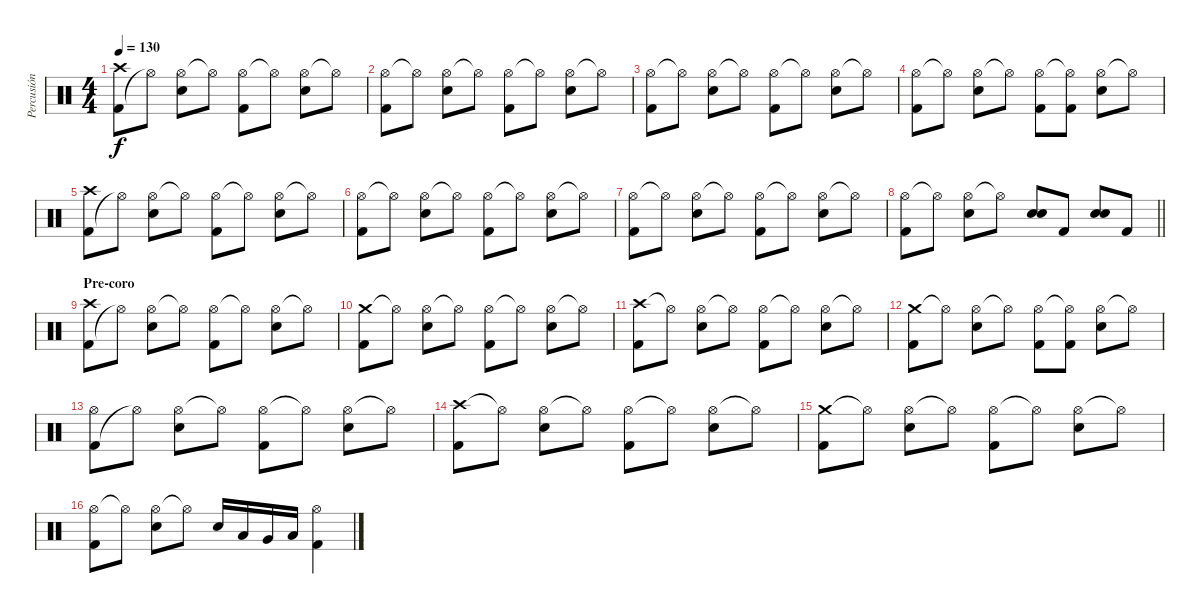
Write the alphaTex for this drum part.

\track ("Percusión" "Percusión") {instrument percussion}
\staff {score}
\articulation defaults
\ts (4 4)
\tempo 130
\clef neutral
\ks c
("Kick (hit) 2" "Crash high (hit)").8{dy f} "Hi-Hat (open)"{t}.8 ("Hi-Hat (open)" "Snare (hit) 2").8 "Hi-Hat (open)"{t}.8 ("Hi-Hat (open)" "Kick (hit) 2").8 "Hi-Hat (open)"{t}.8 ("Hi-Hat (open)" "Snare (hit) 2").8 "Hi-Hat (open)"{t}.8 |
("Hi-Hat (open)" "Kick (hit) 2").8 "Hi-Hat (open)"{t}.8 ("Hi-Hat (open)" "Snare (hit) 2").8 "Hi-Hat (open)"{t}.8 ("Hi-Hat (open)" "Kick (hit) 2").8 "Hi-Hat (open)"{t}.8 ("Hi-Hat (open)" "Snare (hit) 2").8 "Hi-Hat (open)"{t}.8 |
("Hi-Hat (open)" "Kick (hit) 2").8 "Hi-Hat (open)"{t}.8 ("Hi-Hat (open)" "Snare (hit) 2").8 "Hi-Hat (open)"{t}.8 ("Hi-Hat (open)" "Kick (hit) 2").8 "Hi-Hat (open)"{t}.8 ("Hi-Hat (open)" "Snare (hit) 2").8 "Hi-Hat (open)"{t}.8 |
("Hi-Hat (open)" "Kick (hit) 2").8 "Hi-Hat (open)"{t}.8 ("Hi-Hat (open)" "Snare (hit) 2").8 "Hi-Hat (open)"{t}.8 ("Hi-Hat (open)" "Kick (hit) 2").8 ("Hi-Hat (open)"{t} "Kick (hit) 2").8 ("Hi-Hat (open)" "Snare (hit) 2").8 "Hi-Hat (open)"{t}.8 |
("Kick (hit) 2" "Crash high (hit)").8 "Hi-Hat (open)"{t}.8 ("Hi-Hat (open)" "Snare (hit) 2").8 "Hi-Hat (open)"{t}.8 ("Hi-Hat (open)" "Kick (hit) 2").8 "Hi-Hat (open)"{t}.8 ("Hi-Hat (open)" "Snare (hit) 2").8 "Hi-Hat (open)"{t}.8 |
("Hi-Hat (open)" "Kick (hit) 2").8 "Hi-Hat (open)"{t}.8 ("Hi-Hat (open)" "Snare (hit) 2").8 "Hi-Hat (open)"{t}.8 ("Hi-Hat (open)" "Kick (hit) 2").8 "Hi-Hat (open)"{t}.8 ("Hi-Hat (open)" "Snare (hit) 2").8 "Hi-Hat (open)"{t}.8 |
("Hi-Hat (open)" "Kick (hit) 2").8 "Hi-Hat (open)"{t}.8 ("Hi-Hat (open)" "Snare (hit) 2").8 "Hi-Hat (open)"{t}.8 ("Hi-Hat (open)" "Kick (hit) 2").8 "Hi-Hat (open)"{t}.8 ("Hi-Hat (open)" "Snare (hit) 2").8 "Hi-Hat (open)"{t}.8 |
\barLineRight lightlight
("Hi-Hat (open)" "Kick (hit) 2").8 "Hi-Hat (open)"{t}.8 ("Hi-Hat (open)" "Snare (hit) 2").8 "Hi-Hat (open)"{t}.8 ("Snare (hit) 2" "Electric Snare (hit)").8 "Kick (hit) 2".8 ("Snare (hit) 2" "Electric Snare (hit)").8 "Kick (hit) 2".8 |
\section ("" "Pre-coro")
("Kick (hit) 2" "Crash high (hit)").8 "Hi-Hat (open)"{t}.8 ("Hi-Hat (open)" "Snare (hit) 2").8 "Hi-Hat (open)"{t}.8 ("Hi-Hat (open)" "Kick (hit) 2").8 "Hi-Hat (open)"{t}.8 ("Hi-Hat (open)" "Snare (hit) 2").8 "Hi-Hat (open)"{t}.8 |
("Crash medium (hit)" "Kick (hit) 2").8 "Hi-Hat (open)"{t}.8 ("Hi-Hat (open)" "Snare (hit) 2").8 "Hi-Hat (open)"{t}.8 ("Hi-Hat (open)" "Kick (hit) 2").8 "Hi-Hat (open)"{t}.8 ("Hi-Hat (open)" "Snare (hit) 2").8 "Hi-Hat (open)"{t}.8 |
("Crash high (hit)" "Kick (hit) 2").8 "Hi-Hat (open)"{t}.8 ("Hi-Hat (open)" "Snare (hit) 2").8 "Hi-Hat (open)"{t}.8 ("Hi-Hat (open)" "Kick (hit) 2").8 "Hi-Hat (open)"{t}.8 ("Hi-Hat (open)" "Snare (hit) 2").8 "Hi-Hat (open)"{t}.8 |
("Crash medium (hit)" "Kick (hit) 2").8 "Hi-Hat (open)"{t}.8 ("Hi-Hat (open)" "Snare (hit) 2").8 "Hi-Hat (open)"{t}.8 ("Hi-Hat (open)" "Kick (hit) 2").8 ("Hi-Hat (open)"{t} "Kick (hit) 2").8 ("Hi-Hat (open)" "Snare (hit) 2").8 "Hi-Hat (open)"{t}.8 |
("Kick (hit) 2" "Hi-Hat (open)").8 "Hi-Hat (open)"{t}.8 ("Hi-Hat (open)" "Snare (hit) 2").8 "Hi-Hat (open)"{t}.8 ("Hi-Hat (open)" "Kick (hit) 2").8 "Hi-Hat (open)"{t}.8 ("Hi-Hat (open)" "Snare (hit) 2").8 "Hi-Hat (open)"{t}.8 |
("Crash high (hit)" "Kick (hit) 2").8 "Hi-Hat (open)"{t}.8 ("Hi-Hat (open)" "Snare (hit) 2").8 "Hi-Hat (open)"{t}.8 ("Hi-Hat (open)" "Kick (hit) 2").8 "Hi-Hat (open)"{t}.8 ("Hi-Hat (open)" "Snare (hit) 2").8 "Hi-Hat (open)"{t}.8 |
("Crash medium (hit)" "Kick (hit) 2").8 "Hi-Hat (open)"{t}.8 ("Hi-Hat (open)" "Snare (hit) 2").8 "Hi-Hat (open)"{t}.8 ("Hi-Hat (open)" "Kick (hit) 2").8 "Hi-Hat (open)"{t}.8 ("Hi-Hat (open)" "Snare (hit) 2").8 "Hi-Hat (open)"{t}.8 |
("Hi-Hat (open)" "Kick (hit) 2").8 "Hi-Hat (open)"{t}.8 ("Hi-Hat (open)" "Snare (hit) 2").8 "Hi-Hat (open)"{t}.8 "Snare (hit) 2".16 "Low Tom (hit)".16 "Very Low Tom (hit)".16 "Low Floor Tom (hit)".16 ("Kick (hit) 2" "Hi-Hat (open)").4
